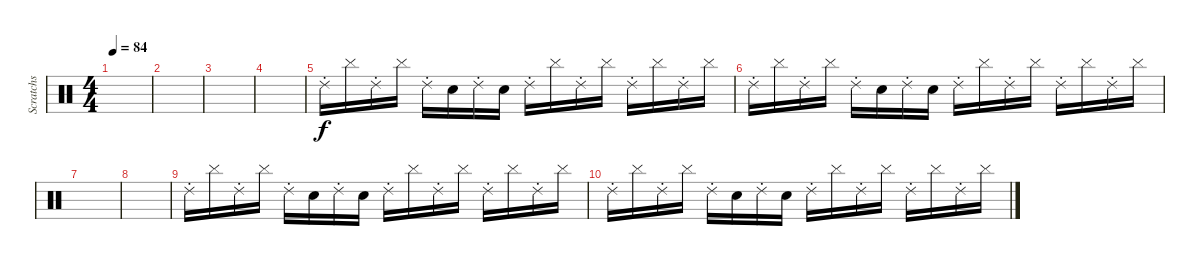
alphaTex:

\track ("Scratchs" "Scratchs") {instrument percussion}
\staff {score}
\articulation defaults
\ts (4 4)
\tempo 84
\clef neutral
\ks c
|
|
|
|
"Ride (choke) 2".16 "Cymbal (hit)".16 "Ride (choke) 2".16 "Cymbal (hit)".16 "Ride (choke) 2".16 "Snare (hit)".16 "Ride (choke) 2".16 "Snare (hit)".16 "Ride (choke) 2".16 "Cymbal (hit)".16 "Ride (choke) 2".16 "Cymbal (hit)".16 "Ride (choke) 2".16 "Cymbal (hit)".16 "Ride (choke) 2".16 "Cymbal (hit)".16 |
"Ride (choke) 2".16 "Cymbal (hit)".16 "Ride (choke) 2".16 "Cymbal (hit)".16 "Ride (choke) 2".16 "Snare (hit)".16 "Ride (choke) 2".16 "Snare (hit)".16 "Ride (choke) 2".16 "Cymbal (hit)".16 "Ride (choke) 2".16 "Cymbal (hit)".16 "Ride (choke) 2".16 "Cymbal (hit)".16 "Ride (choke) 2".16 "Cymbal (hit)".16 |
|
|
"Ride (choke) 2".16 "Cymbal (hit)".16 "Ride (choke) 2".16 "Cymbal (hit)".16 "Ride (choke) 2".16 "Snare (hit)".16 "Ride (choke) 2".16 "Snare (hit)".16 "Ride (choke) 2".16 "Cymbal (hit)".16 "Ride (choke) 2".16 "Cymbal (hit)".16 "Ride (choke) 2".16 "Cymbal (hit)".16 "Ride (choke) 2".16 "Cymbal (hit)".16 |
"Ride (choke) 2".16 "Cymbal (hit)".16 "Ride (choke) 2".16 "Cymbal (hit)".16 "Ride (choke) 2".16 "Snare (hit)".16 "Ride (choke) 2".16 "Snare (hit)".16 "Ride (choke) 2".16 "Cymbal (hit)".16 "Ride (choke) 2".16 "Cymbal (hit)".16 "Ride (choke) 2".16 "Cymbal (hit)".16 "Ride (choke) 2".16 "Cymbal (hit)".16
